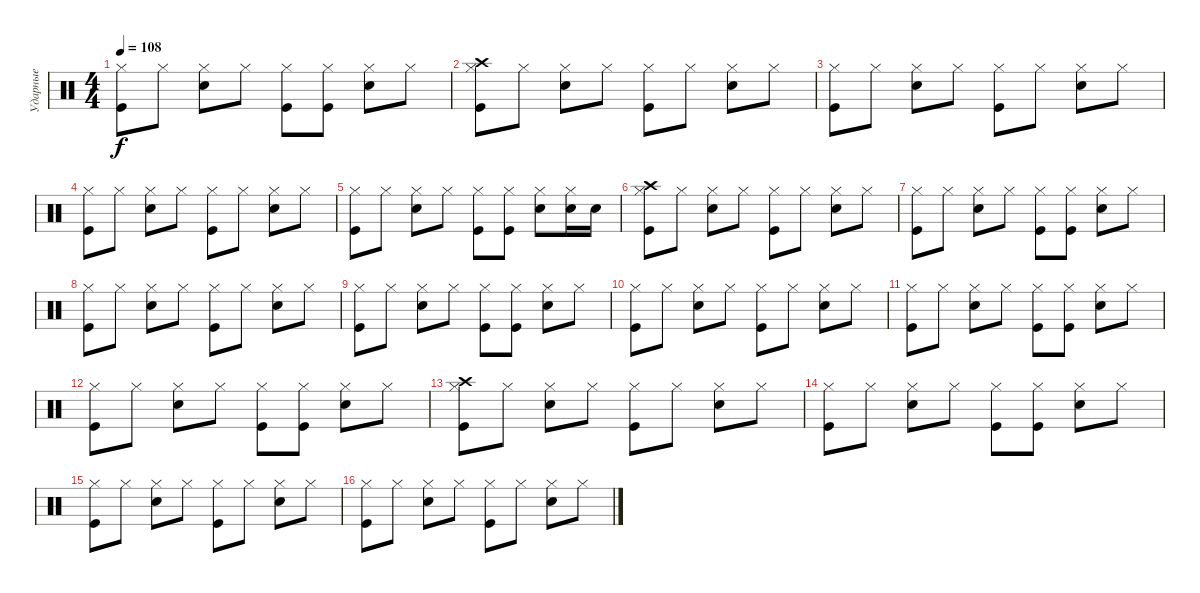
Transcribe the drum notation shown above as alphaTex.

\track ("Ударные" "Ударные") {instrument percussion}
\staff {score}
\articulation defaults
\ts (4 4)
\tempo 108
\clef neutral
\ks c
("Hi-Hat (closed)" "Kick (hit)").8{dy f} "Hi-Hat (closed)".8 ("Hi-Hat (closed)" "Snare (hit) 2").8 "Hi-Hat (closed)".8 ("Hi-Hat (closed)" "Kick (hit)").8 ("Hi-Hat (closed)" "Kick (hit)").8 ("Hi-Hat (closed)" "Snare (hit) 2").8 "Hi-Hat (closed)".8 |
("Hi-Hat (closed)" "Kick (hit)" "Crash high (hit)").8 "Hi-Hat (closed)".8 ("Hi-Hat (closed)" "Snare (hit) 2").8 "Hi-Hat (closed)".8 ("Hi-Hat (closed)" "Kick (hit)").8 "Hi-Hat (closed)".8 ("Hi-Hat (closed)" "Snare (hit) 2").8 "Hi-Hat (closed)".8 |
("Hi-Hat (closed)" "Kick (hit)").8 "Hi-Hat (closed)".8 ("Hi-Hat (closed)" "Snare (hit) 2").8 "Hi-Hat (closed)".8 ("Hi-Hat (closed)" "Kick (hit)").8 "Hi-Hat (closed)".8 ("Hi-Hat (closed)" "Snare (hit) 2").8 "Hi-Hat (closed)".8 |
("Hi-Hat (closed)" "Kick (hit)").8 "Hi-Hat (closed)".8 ("Hi-Hat (closed)" "Snare (hit) 2").8 "Hi-Hat (closed)".8 ("Hi-Hat (closed)" "Kick (hit)").8 "Hi-Hat (closed)".8 ("Hi-Hat (closed)" "Snare (hit) 2").8 "Hi-Hat (closed)".8 |
("Hi-Hat (closed)" "Kick (hit)").8 "Hi-Hat (closed)".8 ("Hi-Hat (closed)" "Snare (hit) 2").8 "Hi-Hat (closed)".8 ("Hi-Hat (closed)" "Kick (hit)").8 ("Hi-Hat (closed)" "Kick (hit)").8 ("Hi-Hat (closed)" "Snare (hit) 2").8 ("Hi-Hat (closed)" "Snare (hit) 2").16 "Snare (hit) 2".16 |
("Hi-Hat (closed)" "Kick (hit)" "Crash high (hit)").8 "Hi-Hat (closed)".8 ("Hi-Hat (closed)" "Snare (hit) 2").8 "Hi-Hat (closed)".8 ("Hi-Hat (closed)" "Kick (hit)").8 "Hi-Hat (closed)".8 ("Hi-Hat (closed)" "Snare (hit) 2").8 "Hi-Hat (closed)".8 |
("Hi-Hat (closed)" "Kick (hit)").8 "Hi-Hat (closed)".8 ("Hi-Hat (closed)" "Snare (hit) 2").8 "Hi-Hat (closed)".8 ("Hi-Hat (closed)" "Kick (hit)").8 ("Hi-Hat (closed)" "Kick (hit)").8 ("Hi-Hat (closed)" "Snare (hit) 2").8 "Hi-Hat (closed)".8 |
("Hi-Hat (closed)" "Kick (hit)").8 "Hi-Hat (closed)".8 ("Hi-Hat (closed)" "Snare (hit) 2").8 "Hi-Hat (closed)".8 ("Hi-Hat (closed)" "Kick (hit)").8 "Hi-Hat (closed)".8 ("Hi-Hat (closed)" "Snare (hit) 2").8 "Hi-Hat (closed)".8 |
("Hi-Hat (closed)" "Kick (hit)").8 "Hi-Hat (closed)".8 ("Hi-Hat (closed)" "Snare (hit) 2").8 "Hi-Hat (closed)".8 ("Hi-Hat (closed)" "Kick (hit)").8 ("Hi-Hat (closed)" "Kick (hit)").8 ("Hi-Hat (closed)" "Snare (hit) 2").8 "Hi-Hat (closed)".8 |
("Hi-Hat (closed)" "Kick (hit)").8 "Hi-Hat (closed)".8 ("Hi-Hat (closed)" "Snare (hit) 2").8 "Hi-Hat (closed)".8 ("Hi-Hat (closed)" "Kick (hit)").8 "Hi-Hat (closed)".8 ("Hi-Hat (closed)" "Snare (hit) 2").8 "Hi-Hat (closed)".8 |
("Hi-Hat (closed)" "Kick (hit)").8 "Hi-Hat (closed)".8 ("Hi-Hat (closed)" "Snare (hit) 2").8 "Hi-Hat (closed)".8 ("Hi-Hat (closed)" "Kick (hit)").8 ("Hi-Hat (closed)" "Kick (hit)").8 ("Hi-Hat (closed)" "Snare (hit) 2").8 "Hi-Hat (closed)".8 |
("Hi-Hat (closed)" "Kick (hit)").8 "Hi-Hat (closed)".8 ("Hi-Hat (closed)" "Snare (hit) 2").8 "Hi-Hat (closed)".8 ("Hi-Hat (closed)" "Kick (hit)").8 ("Hi-Hat (closed)" "Kick (hit)").8 ("Hi-Hat (closed)" "Snare (hit) 2").8 "Hi-Hat (closed)".8 |
("Hi-Hat (closed)" "Kick (hit)" "Crash high (hit)").8 "Hi-Hat (closed)".8 ("Hi-Hat (closed)" "Snare (hit) 2").8 "Hi-Hat (closed)".8 ("Hi-Hat (closed)" "Kick (hit)").8 "Hi-Hat (closed)".8 ("Hi-Hat (closed)" "Snare (hit) 2").8 "Hi-Hat (closed)".8 |
("Hi-Hat (closed)" "Kick (hit)").8 "Hi-Hat (closed)".8 ("Hi-Hat (closed)" "Snare (hit) 2").8 "Hi-Hat (closed)".8 ("Hi-Hat (closed)" "Kick (hit)").8 ("Hi-Hat (closed)" "Kick (hit)").8 ("Hi-Hat (closed)" "Snare (hit) 2").8 "Hi-Hat (closed)".8 |
("Hi-Hat (closed)" "Kick (hit)").8 "Hi-Hat (closed)".8 ("Hi-Hat (closed)" "Snare (hit) 2").8 "Hi-Hat (closed)".8 ("Hi-Hat (closed)" "Kick (hit)").8 "Hi-Hat (closed)".8 ("Hi-Hat (closed)" "Snare (hit) 2").8 "Hi-Hat (closed)".8 |
("Hi-Hat (closed)" "Kick (hit)").8 "Hi-Hat (closed)".8 ("Hi-Hat (closed)" "Snare (hit) 2").8 "Hi-Hat (closed)".8 ("Hi-Hat (closed)" "Kick (hit)").8 "Hi-Hat (closed)".8 ("Hi-Hat (closed)" "Snare (hit) 2").8 "Hi-Hat (closed)".8
